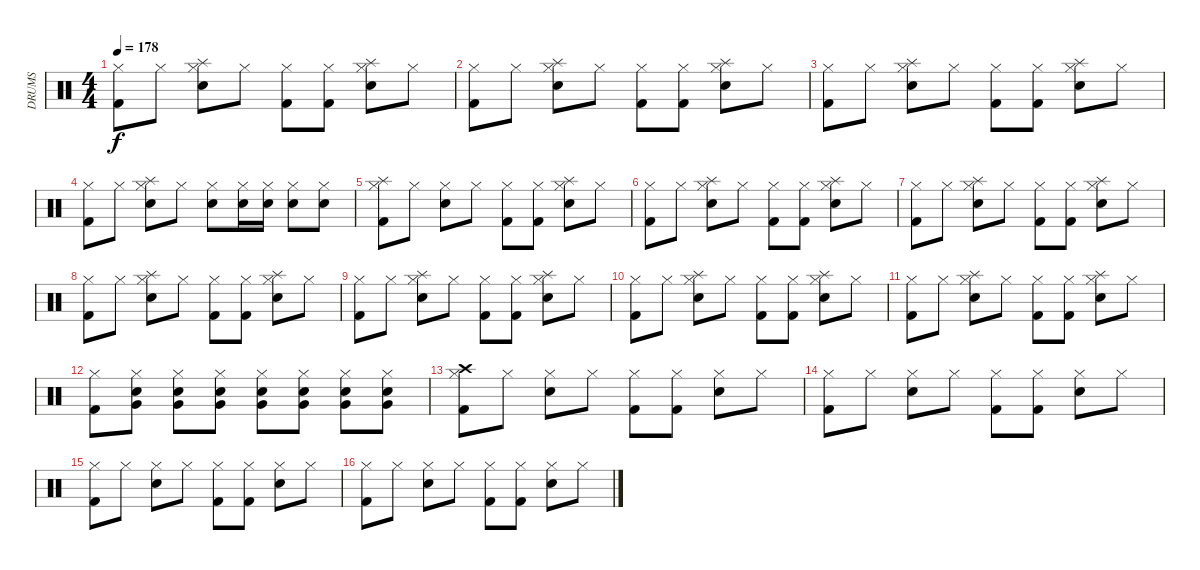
\track ("DRUMS" "DRUMS") {instrument percussion}
\staff {score}
\articulation defaults
\ts (4 4)
\tempo 178
\clef neutral
\ks c
("Hi-Hat (closed)" "Kick (hit) 2").8{dy f} "Hi-Hat (closed)".8 ("Hi-Hat (closed)" "Splash (hit)" "Snare (hit) 2").8 "Hi-Hat (closed)".8 ("Hi-Hat (closed)" "Kick (hit) 2").8 ("Hi-Hat (closed)" "Kick (hit) 2").8 ("Hi-Hat (closed)" "Splash (hit)" "Snare (hit) 2").8 "Hi-Hat (closed)".8 |
("Hi-Hat (closed)" "Kick (hit) 2").8 "Hi-Hat (closed)".8 ("Hi-Hat (closed)" "Splash (hit)" "Snare (hit) 2").8 "Hi-Hat (closed)".8 ("Hi-Hat (closed)" "Kick (hit) 2").8 ("Hi-Hat (closed)" "Kick (hit) 2").8 ("Hi-Hat (closed)" "Splash (hit)" "Snare (hit) 2").8 "Hi-Hat (closed)".8 |
("Hi-Hat (closed)" "Kick (hit) 2").8 "Hi-Hat (closed)".8 ("Hi-Hat (closed)" "Splash (hit)" "Snare (hit) 2").8 "Hi-Hat (closed)".8 ("Hi-Hat (closed)" "Kick (hit) 2").8 ("Hi-Hat (closed)" "Kick (hit) 2").8 ("Hi-Hat (closed)" "Splash (hit)" "Snare (hit) 2").8 "Hi-Hat (closed)".8 |
("Hi-Hat (closed)" "Kick (hit) 2").8 "Hi-Hat (closed)".8 ("Hi-Hat (closed)" "Splash (hit)" "Snare (hit) 2").8 "Hi-Hat (closed)".8 ("Hi-Hat (closed)" "Snare (hit) 2").8 ("Hi-Hat (closed)" "Snare (hit) 2").16 ("Hi-Hat (closed)" "Snare (hit) 2").16 ("Hi-Hat (closed)" "Snare (hit) 2").8 ("Hi-Hat (closed)" "Snare (hit) 2").8 |
("Hi-Hat (closed)" "Splash (hit)" "Kick (hit) 2").8 "Hi-Hat (closed)".8 ("Hi-Hat (closed)" "Snare (hit) 2").8 "Hi-Hat (closed)".8 ("Hi-Hat (closed)" "Kick (hit) 2").8 ("Hi-Hat (closed)" "Kick (hit) 2").8 ("Hi-Hat (closed)" "Splash (hit)" "Snare (hit) 2").8 "Hi-Hat (closed)".8 |
("Hi-Hat (closed)" "Kick (hit) 2").8 "Hi-Hat (closed)".8 ("Hi-Hat (closed)" "Splash (hit)" "Snare (hit) 2").8 "Hi-Hat (closed)".8 ("Hi-Hat (closed)" "Kick (hit) 2").8 ("Hi-Hat (closed)" "Kick (hit) 2").8 ("Hi-Hat (closed)" "Splash (hit)" "Snare (hit) 2").8 "Hi-Hat (closed)".8 |
("Hi-Hat (closed)" "Kick (hit) 2").8 "Hi-Hat (closed)".8 ("Hi-Hat (closed)" "Splash (hit)" "Snare (hit) 2").8 "Hi-Hat (closed)".8 ("Hi-Hat (closed)" "Kick (hit) 2").8 ("Hi-Hat (closed)" "Kick (hit) 2").8 ("Hi-Hat (closed)" "Splash (hit)" "Snare (hit) 2").8 "Hi-Hat (closed)".8 |
("Hi-Hat (closed)" "Kick (hit) 2").8 "Hi-Hat (closed)".8 ("Hi-Hat (closed)" "Splash (hit)" "Snare (hit) 2").8 "Hi-Hat (closed)".8 ("Hi-Hat (closed)" "Kick (hit) 2").8 ("Hi-Hat (closed)" "Kick (hit) 2").8 ("Hi-Hat (closed)" "Splash (hit)" "Snare (hit) 2").8 "Hi-Hat (closed)".8 |
("Hi-Hat (closed)" "Kick (hit) 2").8 "Hi-Hat (closed)".8 ("Hi-Hat (closed)" "Splash (hit)" "Snare (hit) 2").8 "Hi-Hat (closed)".8 ("Hi-Hat (closed)" "Kick (hit) 2").8 ("Hi-Hat (closed)" "Kick (hit) 2").8 ("Hi-Hat (closed)" "Splash (hit)" "Snare (hit) 2").8 "Hi-Hat (closed)".8 |
("Hi-Hat (closed)" "Kick (hit) 2").8 "Hi-Hat (closed)".8 ("Hi-Hat (closed)" "Splash (hit)" "Snare (hit) 2").8 "Hi-Hat (closed)".8 ("Hi-Hat (closed)" "Kick (hit) 2").8 ("Hi-Hat (closed)" "Kick (hit) 2").8 ("Hi-Hat (closed)" "Splash (hit)" "Snare (hit) 2").8 "Hi-Hat (closed)".8 |
("Hi-Hat (closed)" "Kick (hit) 2").8 "Hi-Hat (closed)".8 ("Hi-Hat (closed)" "Splash (hit)" "Snare (hit) 2").8 "Hi-Hat (closed)".8 ("Hi-Hat (closed)" "Kick (hit) 2").8 ("Hi-Hat (closed)" "Kick (hit) 2").8 ("Hi-Hat (closed)" "Splash (hit)" "Snare (hit) 2").8 "Hi-Hat (closed)".8 |
("Hi-Hat (closed)" "Kick (hit) 2").8 ("Hi-Hat (closed)" "Very Low Tom (hit)" "Snare (hit) 2").8 ("Hi-Hat (closed)" "Very Low Tom (hit)" "Snare (hit) 2").8 ("Hi-Hat (closed)" "Very Low Tom (hit)" "Snare (hit) 2").8 ("Hi-Hat (closed)" "Very Low Tom (hit)" "Snare (hit) 2").8 ("Hi-Hat (closed)" "Very Low Tom (hit)" "Snare (hit) 2").8 ("Hi-Hat (closed)" "Very Low Tom (hit)" "Snare (hit) 2").8 ("Hi-Hat (closed)" "Very Low Tom (hit)" "Snare (hit) 2").8 |
("Hi-Hat (closed)" "Crash high (hit)" "Kick (hit) 2").8 "Hi-Hat (closed)".8 ("Hi-Hat (closed)" "Snare (hit) 2").8 "Hi-Hat (closed)".8 ("Hi-Hat (closed)" "Kick (hit) 2").8 ("Hi-Hat (closed)" "Kick (hit) 2").8 ("Hi-Hat (closed)" "Snare (hit) 2").8 "Hi-Hat (closed)".8 |
("Hi-Hat (closed)" "Kick (hit) 2").8 "Hi-Hat (closed)".8 ("Hi-Hat (closed)" "Snare (hit) 2").8 "Hi-Hat (closed)".8 ("Hi-Hat (closed)" "Kick (hit) 2").8 ("Hi-Hat (closed)" "Kick (hit) 2").8 ("Hi-Hat (closed)" "Snare (hit) 2").8 "Hi-Hat (closed)".8 |
("Hi-Hat (closed)" "Kick (hit) 2").8 "Hi-Hat (closed)".8 ("Hi-Hat (closed)" "Snare (hit) 2").8 "Hi-Hat (closed)".8 ("Hi-Hat (closed)" "Kick (hit) 2").8 ("Hi-Hat (closed)" "Kick (hit) 2").8 ("Hi-Hat (closed)" "Snare (hit) 2").8 "Hi-Hat (closed)".8 |
("Hi-Hat (closed)" "Kick (hit) 2").8 "Hi-Hat (closed)".8 ("Hi-Hat (closed)" "Snare (hit) 2").8 "Hi-Hat (closed)".8 ("Hi-Hat (closed)" "Kick (hit) 2").8 ("Hi-Hat (closed)" "Kick (hit) 2").8 ("Hi-Hat (closed)" "Snare (hit) 2").8 "Hi-Hat (closed)".8
